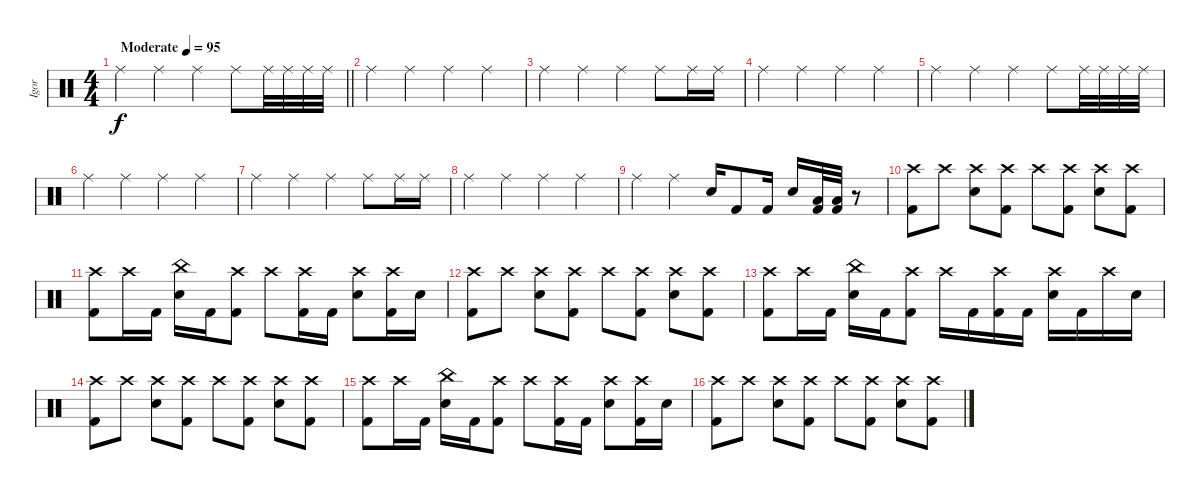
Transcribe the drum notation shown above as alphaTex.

\track ("Igor" "Igor") {instrument percussion}
\staff {score}
\articulation defaults
\ts (4 4)
\tempo (95 "Moderate")
\clef neutral
\barLineRight lightlight
\ks c "Ride (middle)".4{dy f} "Ride (middle)".4 "Ride (middle)".4 "Ride (middle)".8 "Ride (middle)".32 "Ride (middle)".32 "Ride (middle)".32 "Ride (middle)".32
|
"Ride (middle)".4 "Ride (middle)".4 "Ride (middle)".4 "Ride (middle)".4 |
"Ride (middle)".4 "Ride (middle)".4 "Ride (middle)".4 "Ride (middle)".8 "Ride (middle)".16 "Ride (middle)".16 |
"Ride (middle)".4 "Ride (middle)".4 "Ride (middle)".4 "Ride (middle)".4 |
"Ride (middle)".4 "Ride (middle)".4 "Ride (middle)".4 "Ride (middle)".8 "Ride (middle)".32 "Ride (middle)".32 "Ride (middle)".32 "Ride (middle)".32 |
"Ride (middle)".4 "Ride (middle)".4 "Ride (middle)".4 "Ride (middle)".4 |
"Ride (middle)".4 "Ride (middle)".4 "Ride (middle)".4 "Ride (middle)".8 "Ride (middle)".16 "Ride (middle)".16 |
"Ride (middle)".4 "Ride (middle)".4 "Ride (middle)".4 "Ride (middle)".4 |
"Ride (middle)".4 "Ride (middle)".4 "Electric Snare (hit)".16 "Kick (hit) 2".8 "Kick (hit) 2".16 "Electric Snare (hit)".16 ("Low Tom (hit)" "Kick (hit) 2").32 ("Low Tom (hit)" "Kick (hit) 2").32 r.8 |
("Crash high (hit)" "Kick (hit) 2").8 "Crash high (hit)".8 ("Crash high (hit)" "Electric Snare (hit)").8 ("Crash high (hit)" "Kick (hit) 2").8 "Crash high (hit)".8 ("Crash high (hit)" "Kick (hit) 2").8 ("Crash high (hit)" "Electric Snare (hit)").8 ("Crash high (hit)" "Kick (hit) 2").8 |
("Crash high (hit)" "Kick (hit) 2").8 "Crash high (hit)".16 "Kick (hit) 2".16 ("China (hit)" "Electric Snare (hit)").16 "Kick (hit) 2".16 ("Crash high (hit)" "Kick (hit) 2").8 "Crash high (hit)".8 ("Crash high (hit)" "Kick (hit) 2").16 "Kick (hit) 2".16 ("Crash high (hit)" "Electric Snare (hit)").8 ("Crash high (hit)" "Kick (hit) 2").16 "Electric Snare (hit)".16 |
("Crash high (hit)" "Kick (hit) 2").8 "Crash high (hit)".8 ("Crash high (hit)" "Electric Snare (hit)").8 ("Crash high (hit)" "Kick (hit) 2").8 "Crash high (hit)".8 ("Crash high (hit)" "Kick (hit) 2").8 ("Crash high (hit)" "Electric Snare (hit)").8 ("Crash high (hit)" "Kick (hit) 2").8 |
("Crash high (hit)" "Kick (hit) 2").8 "Crash high (hit)".16 "Kick (hit) 2".16 ("China (hit)" "Electric Snare (hit)").16 "Kick (hit) 2".16 ("Crash high (hit)" "Kick (hit) 2").8 "Crash high (hit)".16 "Kick (hit) 2".16 ("Crash high (hit)" "Kick (hit) 2").16 "Kick (hit) 2".16 ("Crash high (hit)" "Electric Snare (hit)").16 "Kick (hit) 2".16 "Crash high (hit)".16 "Electric Snare (hit)".16 |
("Crash high (hit)" "Kick (hit) 2").8 "Crash high (hit)".8 ("Crash high (hit)" "Electric Snare (hit)").8 ("Crash high (hit)" "Kick (hit) 2").8 "Crash high (hit)".8 ("Crash high (hit)" "Kick (hit) 2").8 ("Crash high (hit)" "Electric Snare (hit)").8 ("Crash high (hit)" "Kick (hit) 2").8 |
("Crash high (hit)" "Kick (hit) 2").8 "Crash high (hit)".16 "Kick (hit) 2".16 ("China (hit)" "Electric Snare (hit)").16 "Kick (hit) 2".16 ("Crash high (hit)" "Kick (hit) 2").8 "Crash high (hit)".8 ("Crash high (hit)" "Kick (hit) 2").16 "Kick (hit) 2".16 ("Crash high (hit)" "Electric Snare (hit)").8 ("Crash high (hit)" "Kick (hit) 2").16 "Electric Snare (hit)".16 |
("Crash high (hit)" "Kick (hit) 2").8 "Crash high (hit)".8 ("Crash high (hit)" "Electric Snare (hit)").8 ("Crash high (hit)" "Kick (hit) 2").8 "Crash high (hit)".8 ("Crash high (hit)" "Kick (hit) 2").8 ("Crash high (hit)" "Electric Snare (hit)").8 ("Crash high (hit)" "Kick (hit) 2").8
